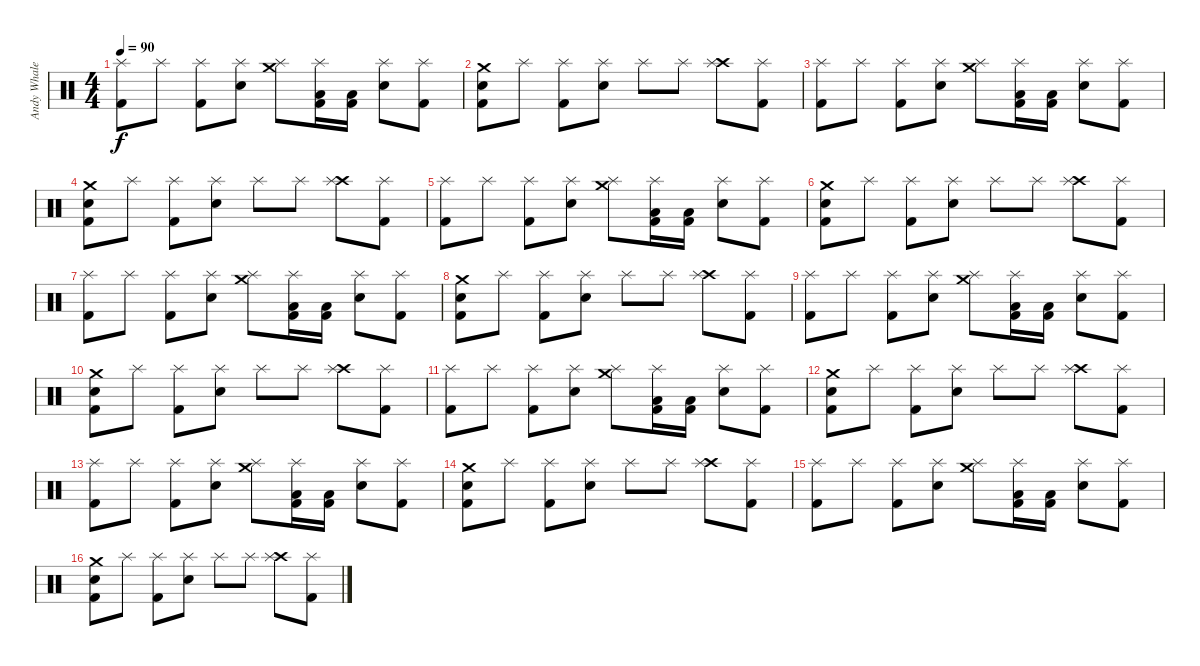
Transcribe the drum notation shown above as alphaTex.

\track ("Andy Whale" "Andy Whale") {instrument percussion}
\staff {score}
\articulation defaults
\ts (4 4)
\tempo 90
\clef neutral
\ks c
("Splash (hit)" "Kick (hit) 2").8{dy f} "Splash (hit)".8 ("Splash (hit)" "Kick (hit) 2").8 ("Splash (hit)" "Snare (hit) 2").8 ("Crash medium (hit)" "Splash (hit)").8 ("Splash (hit)" "Low Floor Tom (hit)" "Kick (hit) 2").16 ("Low Floor Tom (hit)" "Kick (hit) 2").16 ("Splash (hit)" "Snare (hit) 2").8 ("Splash (hit)" "Kick (hit) 2").8 |
("Crash medium (hit)" "Snare (hit) 2" "Kick (hit) 2").8 "Splash (hit)".8 ("Splash (hit)" "Kick (hit) 2").8 ("Splash (hit)" "Snare (hit) 2").8 "Splash (hit)".8 "Splash (hit)".8 ("Crash high (hit)" "Splash (hit)").8 ("Splash (hit)" "Kick (hit) 2").8 |
("Splash (hit)" "Kick (hit) 2").8 "Splash (hit)".8 ("Splash (hit)" "Kick (hit) 2").8 ("Splash (hit)" "Snare (hit) 2").8 ("Crash medium (hit)" "Splash (hit)").8 ("Splash (hit)" "Low Floor Tom (hit)" "Kick (hit) 2").16 ("Low Floor Tom (hit)" "Kick (hit) 2").16 ("Splash (hit)" "Snare (hit) 2").8 ("Splash (hit)" "Kick (hit) 2").8 |
("Crash medium (hit)" "Snare (hit) 2" "Kick (hit) 2").8 "Splash (hit)".8 ("Splash (hit)" "Kick (hit) 2").8 ("Splash (hit)" "Snare (hit) 2").8 "Splash (hit)".8 "Splash (hit)".8 ("Crash high (hit)" "Splash (hit)").8 ("Splash (hit)" "Kick (hit) 2").8 |
("Splash (hit)" "Kick (hit) 2").8 "Splash (hit)".8 ("Splash (hit)" "Kick (hit) 2").8 ("Splash (hit)" "Snare (hit) 2").8 ("Crash medium (hit)" "Splash (hit)").8 ("Splash (hit)" "Low Floor Tom (hit)" "Kick (hit) 2").16 ("Low Floor Tom (hit)" "Kick (hit) 2").16 ("Splash (hit)" "Snare (hit) 2").8 ("Splash (hit)" "Kick (hit) 2").8 |
("Crash medium (hit)" "Snare (hit) 2" "Kick (hit) 2").8 "Splash (hit)".8 ("Splash (hit)" "Kick (hit) 2").8 ("Splash (hit)" "Snare (hit) 2").8 "Splash (hit)".8 "Splash (hit)".8 ("Crash high (hit)" "Splash (hit)").8 ("Splash (hit)" "Kick (hit) 2").8 |
("Splash (hit)" "Kick (hit) 2").8 "Splash (hit)".8 ("Splash (hit)" "Kick (hit) 2").8 ("Splash (hit)" "Snare (hit) 2").8 ("Crash medium (hit)" "Splash (hit)").8 ("Splash (hit)" "Low Floor Tom (hit)" "Kick (hit) 2").16 ("Low Floor Tom (hit)" "Kick (hit) 2").16 ("Splash (hit)" "Snare (hit) 2").8 ("Splash (hit)" "Kick (hit) 2").8 |
("Crash medium (hit)" "Snare (hit) 2" "Kick (hit) 2").8 "Splash (hit)".8 ("Splash (hit)" "Kick (hit) 2").8 ("Splash (hit)" "Snare (hit) 2").8 "Splash (hit)".8 "Splash (hit)".8 ("Crash high (hit)" "Splash (hit)").8 ("Splash (hit)" "Kick (hit) 2").8 |
("Splash (hit)" "Kick (hit) 2").8 "Splash (hit)".8 ("Splash (hit)" "Kick (hit) 2").8 ("Splash (hit)" "Snare (hit) 2").8 ("Crash medium (hit)" "Splash (hit)").8 ("Splash (hit)" "Low Floor Tom (hit)" "Kick (hit) 2").16 ("Low Floor Tom (hit)" "Kick (hit) 2").16 ("Splash (hit)" "Snare (hit) 2").8 ("Splash (hit)" "Kick (hit) 2").8 |
("Crash medium (hit)" "Snare (hit) 2" "Kick (hit) 2").8 "Splash (hit)".8 ("Splash (hit)" "Kick (hit) 2").8 ("Splash (hit)" "Snare (hit) 2").8 "Splash (hit)".8 "Splash (hit)".8 ("Crash high (hit)" "Splash (hit)").8 ("Splash (hit)" "Kick (hit) 2").8 |
("Splash (hit)" "Kick (hit) 2").8 "Splash (hit)".8 ("Splash (hit)" "Kick (hit) 2").8 ("Splash (hit)" "Snare (hit) 2").8 ("Crash medium (hit)" "Splash (hit)").8 ("Splash (hit)" "Low Floor Tom (hit)" "Kick (hit) 2").16 ("Low Floor Tom (hit)" "Kick (hit) 2").16 ("Splash (hit)" "Snare (hit) 2").8 ("Splash (hit)" "Kick (hit) 2").8 |
("Crash medium (hit)" "Snare (hit) 2" "Kick (hit) 2").8 "Splash (hit)".8 ("Splash (hit)" "Kick (hit) 2").8 ("Splash (hit)" "Snare (hit) 2").8 "Splash (hit)".8 "Splash (hit)".8 ("Crash high (hit)" "Splash (hit)").8 ("Splash (hit)" "Kick (hit) 2").8 |
("Splash (hit)" "Kick (hit) 2").8 "Splash (hit)".8 ("Splash (hit)" "Kick (hit) 2").8 ("Splash (hit)" "Snare (hit) 2").8 ("Crash medium (hit)" "Splash (hit)").8 ("Splash (hit)" "Low Floor Tom (hit)" "Kick (hit) 2").16 ("Low Floor Tom (hit)" "Kick (hit) 2").16 ("Splash (hit)" "Snare (hit) 2").8 ("Splash (hit)" "Kick (hit) 2").8 |
("Crash medium (hit)" "Snare (hit) 2" "Kick (hit) 2").8 "Splash (hit)".8 ("Splash (hit)" "Kick (hit) 2").8 ("Splash (hit)" "Snare (hit) 2").8 "Splash (hit)".8 "Splash (hit)".8 ("Crash high (hit)" "Splash (hit)").8 ("Splash (hit)" "Kick (hit) 2").8 |
("Splash (hit)" "Kick (hit) 2").8 "Splash (hit)".8 ("Splash (hit)" "Kick (hit) 2").8 ("Splash (hit)" "Snare (hit) 2").8 ("Crash medium (hit)" "Splash (hit)").8 ("Splash (hit)" "Low Floor Tom (hit)" "Kick (hit) 2").16 ("Low Floor Tom (hit)" "Kick (hit) 2").16 ("Splash (hit)" "Snare (hit) 2").8 ("Splash (hit)" "Kick (hit) 2").8 |
("Crash medium (hit)" "Snare (hit) 2" "Kick (hit) 2").8 "Splash (hit)".8 ("Splash (hit)" "Kick (hit) 2").8 ("Splash (hit)" "Snare (hit) 2").8 "Splash (hit)".8 "Splash (hit)".8 ("Crash high (hit)" "Splash (hit)").8 ("Splash (hit)" "Kick (hit) 2").8
